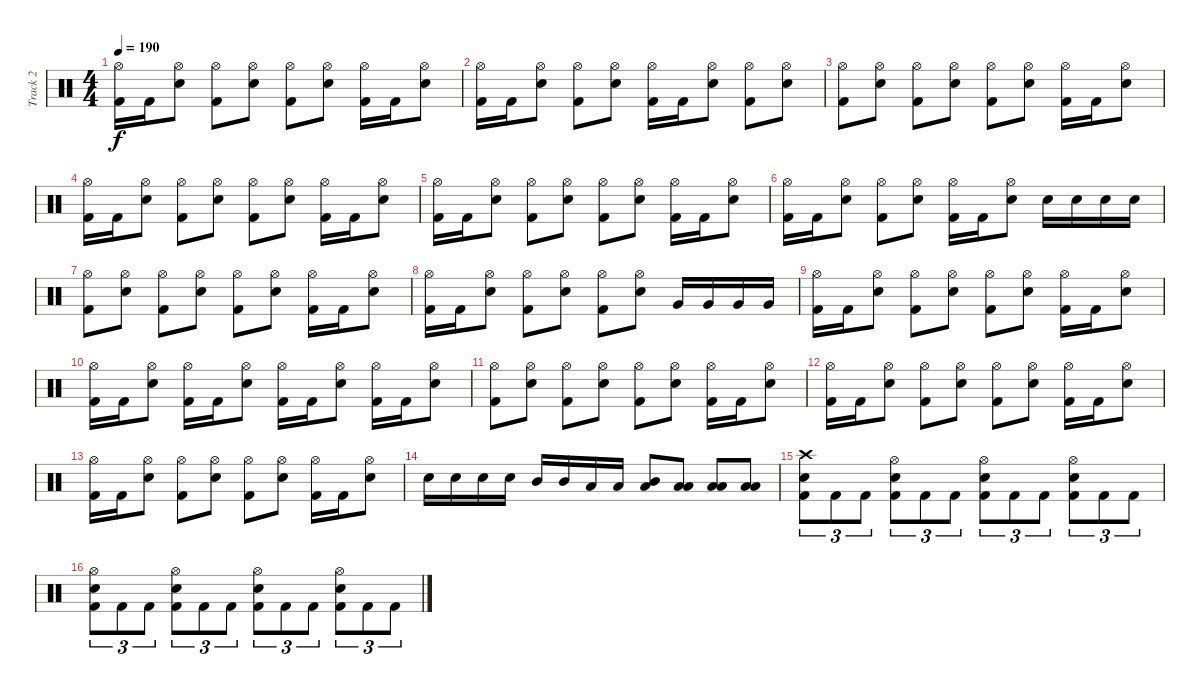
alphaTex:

\track ("Track 2" "Track 2") {instrument percussion}
\staff {score}
\articulation defaults
\ts (4 4)
\tempo 190
\clef neutral
\ks c
("Hi-Hat (open)" "Kick (hit) 2").16{dy f} "Kick (hit) 2".16 ("Hi-Hat (open)" "Snare (hit) 2").8 ("Hi-Hat (open)" "Kick (hit) 2").8 ("Hi-Hat (open)" "Snare (hit) 2").8 ("Hi-Hat (open)" "Kick (hit) 2").8 ("Hi-Hat (open)" "Snare (hit) 2").8 ("Hi-Hat (open)" "Kick (hit) 2").16 "Kick (hit) 2".16 ("Hi-Hat (open)" "Snare (hit) 2").8 |
("Hi-Hat (open)" "Kick (hit) 2").16 "Kick (hit) 2".16 ("Hi-Hat (open)" "Snare (hit) 2").8 ("Hi-Hat (open)" "Kick (hit) 2").8 ("Hi-Hat (open)" "Snare (hit) 2").8 ("Hi-Hat (open)" "Kick (hit) 2").16 "Kick (hit) 2".16 ("Hi-Hat (open)" "Snare (hit) 2").8 ("Hi-Hat (open)" "Kick (hit) 2").8 ("Hi-Hat (open)" "Snare (hit) 2").8 |
("Hi-Hat (open)" "Kick (hit) 2").8 ("Hi-Hat (open)" "Snare (hit) 2").8 ("Hi-Hat (open)" "Kick (hit) 2").8 ("Hi-Hat (open)" "Snare (hit) 2").8 ("Hi-Hat (open)" "Kick (hit) 2").8 ("Hi-Hat (open)" "Snare (hit) 2").8 ("Hi-Hat (open)" "Kick (hit) 2").16 "Kick (hit) 2".16 ("Hi-Hat (open)" "Snare (hit) 2").8 |
("Hi-Hat (open)" "Kick (hit) 2").16 "Kick (hit) 2".16 ("Hi-Hat (open)" "Snare (hit) 2").8 ("Hi-Hat (open)" "Kick (hit) 2").8 ("Hi-Hat (open)" "Snare (hit) 2").8 ("Hi-Hat (open)" "Kick (hit) 2").8 ("Hi-Hat (open)" "Snare (hit) 2").8 ("Hi-Hat (open)" "Kick (hit) 2").16 "Kick (hit) 2".16 ("Hi-Hat (open)" "Snare (hit) 2").8 |
("Hi-Hat (open)" "Kick (hit) 2").16 "Kick (hit) 2".16 ("Hi-Hat (open)" "Snare (hit) 2").8 ("Hi-Hat (open)" "Kick (hit) 2").8 ("Hi-Hat (open)" "Snare (hit) 2").8 ("Hi-Hat (open)" "Kick (hit) 2").8 ("Hi-Hat (open)" "Snare (hit) 2").8 ("Hi-Hat (open)" "Kick (hit) 2").16 "Kick (hit) 2".16 ("Hi-Hat (open)" "Snare (hit) 2").8 |
("Hi-Hat (open)" "Kick (hit) 2").16 "Kick (hit) 2".16 ("Hi-Hat (open)" "Snare (hit) 2").8 ("Hi-Hat (open)" "Kick (hit) 2").8 ("Hi-Hat (open)" "Snare (hit) 2").8 ("Hi-Hat (open)" "Kick (hit) 2").16 "Kick (hit) 2".16 ("Hi-Hat (open)" "Snare (hit) 2").8 "Snare (hit) 2".16 "Snare (hit) 2".16 "Snare (hit) 2".16 "Snare (hit) 2".16 |
("Hi-Hat (open)" "Kick (hit) 2").8 ("Hi-Hat (open)" "Snare (hit) 2").8 ("Hi-Hat (open)" "Kick (hit) 2").8 ("Hi-Hat (open)" "Snare (hit) 2").8 ("Hi-Hat (open)" "Kick (hit) 2").8 ("Hi-Hat (open)" "Snare (hit) 2").8 ("Hi-Hat (open)" "Kick (hit) 2").16 "Kick (hit) 2".16 ("Hi-Hat (open)" "Snare (hit) 2").8 |
("Hi-Hat (open)" "Kick (hit) 2").16 "Kick (hit) 2".16 ("Hi-Hat (open)" "Snare (hit) 2").8 ("Hi-Hat (open)" "Kick (hit) 2").8 ("Hi-Hat (open)" "Snare (hit) 2").8 ("Hi-Hat (open)" "Kick (hit) 2").8 ("Hi-Hat (open)" "Snare (hit) 2").8 "Very Low Tom (hit)".16 "Very Low Tom (hit)".16 "Very Low Tom (hit)".16 "Very Low Tom (hit)".16 |
("Hi-Hat (open)" "Kick (hit) 2").16 "Kick (hit) 2".16 ("Hi-Hat (open)" "Snare (hit) 2").8 ("Hi-Hat (open)" "Kick (hit) 2").8 ("Hi-Hat (open)" "Snare (hit) 2").8 ("Hi-Hat (open)" "Kick (hit) 2").8 ("Hi-Hat (open)" "Snare (hit) 2").8 ("Hi-Hat (open)" "Kick (hit) 2").16 "Kick (hit) 2".16 ("Hi-Hat (open)" "Snare (hit) 2").8 |
("Hi-Hat (open)" "Kick (hit) 2").16 "Kick (hit) 2".16 ("Hi-Hat (open)" "Snare (hit) 2").8 ("Hi-Hat (open)" "Kick (hit) 2").16 "Kick (hit) 2".16 ("Hi-Hat (open)" "Snare (hit) 2").8 ("Hi-Hat (open)" "Kick (hit) 2").16 "Kick (hit) 2".16 ("Hi-Hat (open)" "Snare (hit) 2").8 ("Hi-Hat (open)" "Kick (hit) 2").16 "Kick (hit) 2".16 ("Hi-Hat (open)" "Snare (hit) 2").8 |
("Hi-Hat (open)" "Kick (hit) 2").8 ("Hi-Hat (open)" "Snare (hit) 2").8 ("Hi-Hat (open)" "Kick (hit) 2").8 ("Hi-Hat (open)" "Snare (hit) 2").8 ("Hi-Hat (open)" "Kick (hit) 2").8 ("Hi-Hat (open)" "Snare (hit) 2").8 ("Hi-Hat (open)" "Kick (hit) 2").16 "Kick (hit) 2".16 ("Hi-Hat (open)" "Snare (hit) 2").8 |
("Hi-Hat (open)" "Kick (hit) 2").16 "Kick (hit) 2".16 ("Hi-Hat (open)" "Snare (hit) 2").8 ("Hi-Hat (open)" "Kick (hit) 2").8 ("Hi-Hat (open)" "Snare (hit) 2").8 ("Hi-Hat (open)" "Kick (hit) 2").8 ("Hi-Hat (open)" "Snare (hit) 2").8 ("Hi-Hat (open)" "Kick (hit) 2").16 "Kick (hit) 2".16 ("Hi-Hat (open)" "Snare (hit) 2").8 |
("Hi-Hat (open)" "Kick (hit) 2").16 "Kick (hit) 2".16 ("Hi-Hat (open)" "Snare (hit) 2").8 ("Hi-Hat (open)" "Kick (hit) 2").8 ("Hi-Hat (open)" "Snare (hit) 2").8 ("Hi-Hat (open)" "Kick (hit) 2").8 ("Hi-Hat (open)" "Snare (hit) 2").8 ("Hi-Hat (open)" "Kick (hit) 2").16 "Kick (hit) 2".16 ("Hi-Hat (open)" "Snare (hit) 2").8 |
"Snare (hit) 2".16 "Snare (hit) 2".16 "Snare (hit) 2".16 "Snare (hit) 2".16 "Mid Tom (hit)".16 "Mid Tom (hit)".16 "Low Tom (hit)".16 "Low Tom (hit)".16 ("Mid Tom (hit)" "Low Tom (hit)").8 ("Low Tom (hit)" "Low Floor Tom (hit)").8 ("Low Tom (hit)" "Low Floor Tom (hit)").8 ("Low Tom (hit)" "Low Floor Tom (hit)").8 |
("Crash high (hit)" "Snare (hit) 2" "Kick (hit) 2").8{tu (3 2)} "Kick (hit) 2".8{tu (3 2)} "Kick (hit) 2".8{tu (3 2)} ("Hi-Hat (open)" "Snare (hit) 2" "Kick (hit) 2").8{tu (3 2)} "Kick (hit) 2".8{tu (3 2)} "Kick (hit) 2".8{tu (3 2)} ("Hi-Hat (open)" "Snare (hit) 2" "Kick (hit) 2").8{tu (3 2)} "Kick (hit) 2".8{tu (3 2)} "Kick (hit) 2".8{tu (3 2)} ("Hi-Hat (open)" "Snare (hit) 2" "Kick (hit) 2").8{tu (3 2)} "Kick (hit) 2".8{tu (3 2)} "Kick (hit) 2".8{tu (3 2)} |
("Hi-Hat (open)" "Snare (hit) 2" "Kick (hit) 2").8{tu (3 2)} "Kick (hit) 2".8{tu (3 2)} "Kick (hit) 2".8{tu (3 2)} ("Hi-Hat (open)" "Snare (hit) 2" "Kick (hit) 2").8{tu (3 2)} "Kick (hit) 2".8{tu (3 2)} "Kick (hit) 2".8{tu (3 2)} ("Hi-Hat (open)" "Snare (hit) 2" "Kick (hit) 2").8{tu (3 2)} "Kick (hit) 2".8{tu (3 2)} "Kick (hit) 2".8{tu (3 2)} ("Hi-Hat (open)" "Snare (hit) 2" "Kick (hit) 2").8{tu (3 2)} "Kick (hit) 2".8{tu (3 2)} "Kick (hit) 2".8{tu (3 2)}
